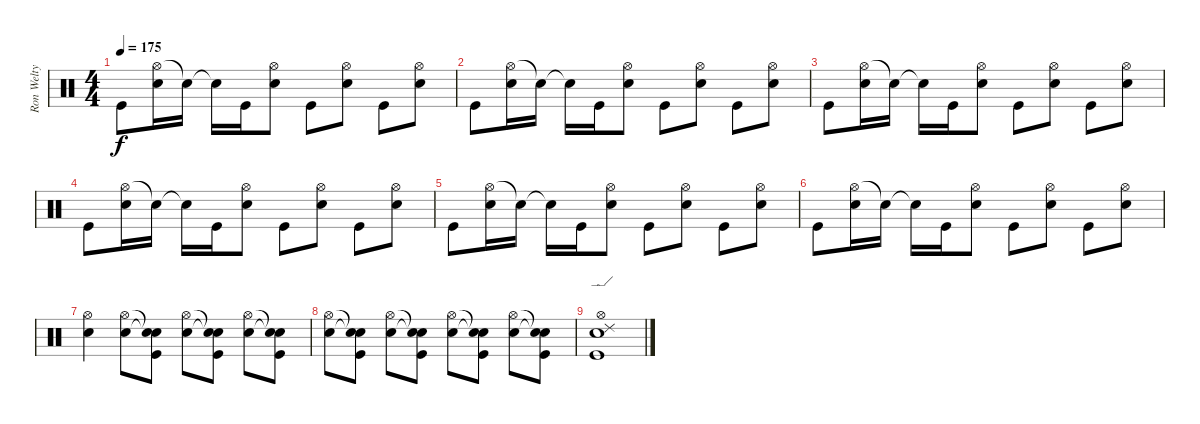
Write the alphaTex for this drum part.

\track ("Ron Welty" "Ron Welty") {instrument percussion}
\staff {score}
\articulation defaults
\ts (4 4)
\tempo 175
\clef neutral
\ks c "Kick (hit)".8{dy f}
("Hi-Hat (open)" "Electric Snare (hit)").16 "Snare (hit)"{t}.16 "Snare (hit)"{t}.16 "Kick (hit)".16 ("Hi-Hat (open)" "Electric Snare (hit)").8 "Kick (hit)".8 ("Hi-Hat (open)" "Electric Snare (hit)").8 "Kick (hit)".8 ("Hi-Hat (open)" "Electric Snare (hit)").8 |
"Kick (hit)".8 ("Hi-Hat (open)" "Electric Snare (hit)").16 "Snare (hit)"{t}.16 "Snare (hit)"{t}.16 "Kick (hit)".16 ("Hi-Hat (open)" "Electric Snare (hit)").8 "Kick (hit)".8 ("Hi-Hat (open)" "Electric Snare (hit)").8 "Kick (hit)".8 ("Hi-Hat (open)" "Electric Snare (hit)").8 |
"Kick (hit)".8 ("Hi-Hat (open)" "Electric Snare (hit)").16 "Snare (hit)"{t}.16 "Snare (hit)"{t}.16 "Kick (hit)".16 ("Hi-Hat (open)" "Electric Snare (hit)").8 "Kick (hit)".8 ("Hi-Hat (open)" "Electric Snare (hit)").8 "Kick (hit)".8 ("Hi-Hat (open)" "Electric Snare (hit)").8 |
"Kick (hit)".8 ("Hi-Hat (open)" "Electric Snare (hit)").16 "Snare (hit)"{t}.16 "Snare (hit)"{t}.16 "Kick (hit)".16 ("Hi-Hat (open)" "Electric Snare (hit)").8 "Kick (hit)".8 ("Hi-Hat (open)" "Electric Snare (hit)").8 "Kick (hit)".8 ("Hi-Hat (open)" "Electric Snare (hit)").8 |
"Kick (hit)".8 ("Hi-Hat (open)" "Electric Snare (hit)").16 "Snare (hit)"{t}.16 "Snare (hit)"{t}.16 "Kick (hit)".16 ("Hi-Hat (open)" "Electric Snare (hit)").8 "Kick (hit)".8 ("Hi-Hat (open)" "Electric Snare (hit)").8 "Kick (hit)".8 ("Hi-Hat (open)" "Electric Snare (hit)").8 |
"Kick (hit)".8 ("Hi-Hat (open)" "Electric Snare (hit)").16 "Snare (hit)"{t}.16 "Snare (hit)"{t}.16 "Kick (hit)".16 ("Hi-Hat (open)" "Electric Snare (hit)").8 "Kick (hit)".8 ("Hi-Hat (open)" "Electric Snare (hit)").8 "Kick (hit)".8 ("Hi-Hat (open)" "Electric Snare (hit)").8 |
("Hi-Hat (open)" "Electric Snare (hit)").4 ("Hi-Hat (open)" "Electric Snare (hit)").8 ("Snare (hit)"{t} "Snare (hit)"{t} "Kick (hit)").8 ("Hi-Hat (open)" "Electric Snare (hit)").8 ("Snare (hit)"{t} "Snare (hit)"{t} "Kick (hit)").8 ("Hi-Hat (open)" "Electric Snare (hit)").8 ("Snare (hit)"{t} "Snare (hit)"{t} "Kick (hit)").8 |
("Hi-Hat (open)" "Electric Snare (hit)").8 ("Snare (hit)"{t} "Snare (hit)"{t} "Kick (hit)").8 ("Hi-Hat (open)" "Electric Snare (hit)").8 ("Snare (hit)"{t} "Snare (hit)"{t} "Kick (hit)").8 ("Hi-Hat (open)" "Electric Snare (hit)").8 ("Snare (hit)"{t} "Snare (hit)"{t} "Kick (hit)").8 ("Hi-Hat (open)" "Electric Snare (hit)").8 ("Snare (hit)"{t} "Snare (hit)"{t} "Kick (hit)").8 |
("Ride (edge) 2" "Kick (hit)" "Hi-Hat (open)" "Electric Snare (hit)").1
